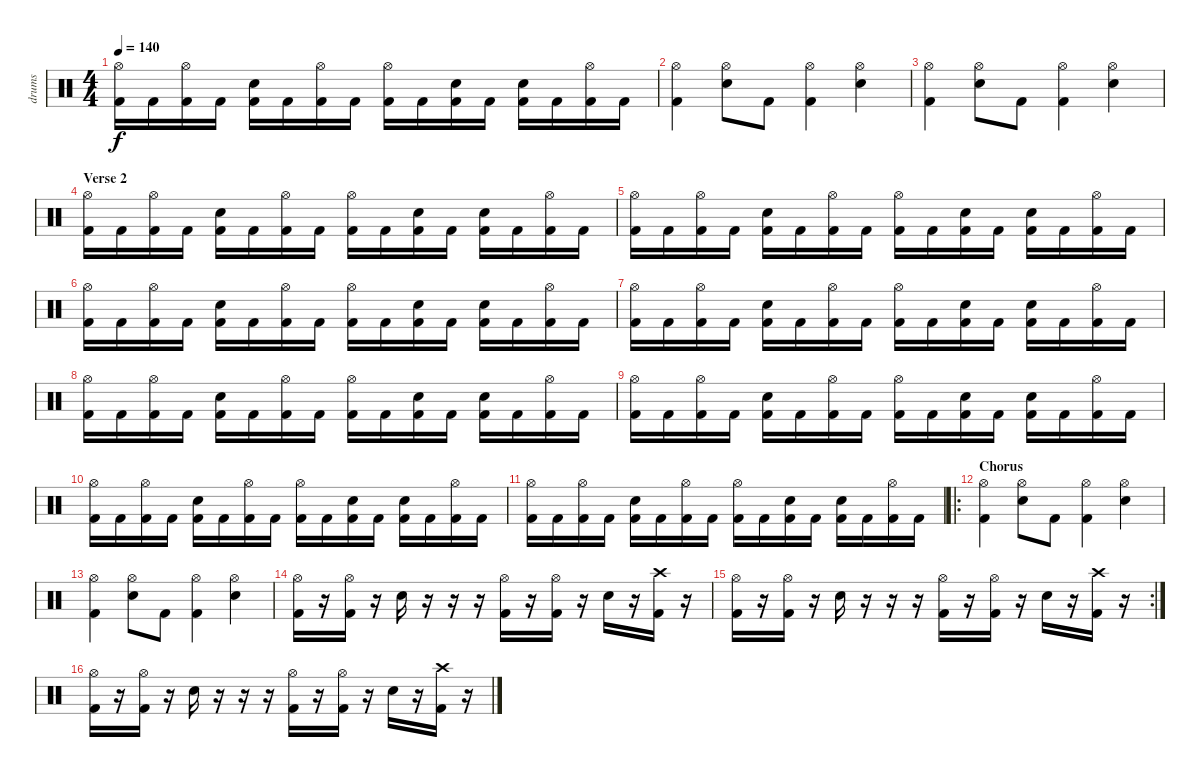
\track ("drums" "drums") {instrument percussion}
\staff {score}
\articulation defaults
\ts (4 4)
\tempo 140
\clef neutral
\ks c
("Hi-Hat (open)" "Kick (hit) 2").16{dy f} "Kick (hit) 2".16 ("Hi-Hat (open)" "Kick (hit) 2").16 "Kick (hit) 2".16 ("Electric Snare (hit)" "Kick (hit) 2").16 "Kick (hit) 2".16 ("Hi-Hat (open)" "Kick (hit) 2").16 "Kick (hit) 2".16 ("Hi-Hat (open)" "Kick (hit) 2").16 "Kick (hit) 2".16 ("Electric Snare (hit)" "Kick (hit) 2").16 "Kick (hit) 2".16 ("Electric Snare (hit)" "Kick (hit) 2").16 "Kick (hit) 2".16 ("Hi-Hat (open)" "Kick (hit) 2").16 "Kick (hit) 2".16 |
("Hi-Hat (open)" "Kick (hit) 2").4 ("Hi-Hat (open)" "Electric Snare (hit)").8 "Kick (hit) 2".8 ("Hi-Hat (open)" "Kick (hit) 2").4 ("Hi-Hat (open)" "Electric Snare (hit)").4 |
("Hi-Hat (open)" "Kick (hit) 2").4 ("Hi-Hat (open)" "Electric Snare (hit)").8 "Kick (hit) 2".8 ("Hi-Hat (open)" "Kick (hit) 2").4 ("Hi-Hat (open)" "Electric Snare (hit)").4 |
\section ("" "Verse 2")
("Hi-Hat (open)" "Kick (hit) 2").16 "Kick (hit) 2".16 ("Hi-Hat (open)" "Kick (hit) 2").16 "Kick (hit) 2".16 ("Electric Snare (hit)" "Kick (hit) 2").16 "Kick (hit) 2".16 ("Hi-Hat (open)" "Kick (hit) 2").16 "Kick (hit) 2".16 ("Hi-Hat (open)" "Kick (hit) 2").16 "Kick (hit) 2".16 ("Electric Snare (hit)" "Kick (hit) 2").16 "Kick (hit) 2".16 ("Electric Snare (hit)" "Kick (hit) 2").16 "Kick (hit) 2".16 ("Hi-Hat (open)" "Kick (hit) 2").16 "Kick (hit) 2".16 |
("Hi-Hat (open)" "Kick (hit) 2").16 "Kick (hit) 2".16 ("Hi-Hat (open)" "Kick (hit) 2").16 "Kick (hit) 2".16 ("Electric Snare (hit)" "Kick (hit) 2").16 "Kick (hit) 2".16 ("Hi-Hat (open)" "Kick (hit) 2").16 "Kick (hit) 2".16 ("Hi-Hat (open)" "Kick (hit) 2").16 "Kick (hit) 2".16 ("Electric Snare (hit)" "Kick (hit) 2").16 "Kick (hit) 2".16 ("Electric Snare (hit)" "Kick (hit) 2").16 "Kick (hit) 2".16 ("Hi-Hat (open)" "Kick (hit) 2").16 "Kick (hit) 2".16 |
("Hi-Hat (open)" "Kick (hit) 2").16 "Kick (hit) 2".16 ("Hi-Hat (open)" "Kick (hit) 2").16 "Kick (hit) 2".16 ("Electric Snare (hit)" "Kick (hit) 2").16 "Kick (hit) 2".16 ("Hi-Hat (open)" "Kick (hit) 2").16 "Kick (hit) 2".16 ("Hi-Hat (open)" "Kick (hit) 2").16 "Kick (hit) 2".16 ("Electric Snare (hit)" "Kick (hit) 2").16 "Kick (hit) 2".16 ("Electric Snare (hit)" "Kick (hit) 2").16 "Kick (hit) 2".16 ("Hi-Hat (open)" "Kick (hit) 2").16 "Kick (hit) 2".16 |
("Hi-Hat (open)" "Kick (hit) 2").16 "Kick (hit) 2".16 ("Hi-Hat (open)" "Kick (hit) 2").16 "Kick (hit) 2".16 ("Electric Snare (hit)" "Kick (hit) 2").16 "Kick (hit) 2".16 ("Hi-Hat (open)" "Kick (hit) 2").16 "Kick (hit) 2".16 ("Hi-Hat (open)" "Kick (hit) 2").16 "Kick (hit) 2".16 ("Electric Snare (hit)" "Kick (hit) 2").16 "Kick (hit) 2".16 ("Electric Snare (hit)" "Kick (hit) 2").16 "Kick (hit) 2".16 ("Hi-Hat (open)" "Kick (hit) 2").16 "Kick (hit) 2".16 |
("Hi-Hat (open)" "Kick (hit) 2").16 "Kick (hit) 2".16 ("Hi-Hat (open)" "Kick (hit) 2").16 "Kick (hit) 2".16 ("Electric Snare (hit)" "Kick (hit) 2").16 "Kick (hit) 2".16 ("Hi-Hat (open)" "Kick (hit) 2").16 "Kick (hit) 2".16 ("Hi-Hat (open)" "Kick (hit) 2").16 "Kick (hit) 2".16 ("Electric Snare (hit)" "Kick (hit) 2").16 "Kick (hit) 2".16 ("Electric Snare (hit)" "Kick (hit) 2").16 "Kick (hit) 2".16 ("Hi-Hat (open)" "Kick (hit) 2").16 "Kick (hit) 2".16 |
("Hi-Hat (open)" "Kick (hit) 2").16 "Kick (hit) 2".16 ("Hi-Hat (open)" "Kick (hit) 2").16 "Kick (hit) 2".16 ("Electric Snare (hit)" "Kick (hit) 2").16 "Kick (hit) 2".16 ("Hi-Hat (open)" "Kick (hit) 2").16 "Kick (hit) 2".16 ("Hi-Hat (open)" "Kick (hit) 2").16 "Kick (hit) 2".16 ("Electric Snare (hit)" "Kick (hit) 2").16 "Kick (hit) 2".16 ("Electric Snare (hit)" "Kick (hit) 2").16 "Kick (hit) 2".16 ("Hi-Hat (open)" "Kick (hit) 2").16 "Kick (hit) 2".16 |
("Hi-Hat (open)" "Kick (hit) 2").16 "Kick (hit) 2".16 ("Hi-Hat (open)" "Kick (hit) 2").16 "Kick (hit) 2".16 ("Electric Snare (hit)" "Kick (hit) 2").16 "Kick (hit) 2".16 ("Hi-Hat (open)" "Kick (hit) 2").16 "Kick (hit) 2".16 ("Hi-Hat (open)" "Kick (hit) 2").16 "Kick (hit) 2".16 ("Electric Snare (hit)" "Kick (hit) 2").16 "Kick (hit) 2".16 ("Electric Snare (hit)" "Kick (hit) 2").16 "Kick (hit) 2".16 ("Hi-Hat (open)" "Kick (hit) 2").16 "Kick (hit) 2".16 |
("Hi-Hat (open)" "Kick (hit) 2").16 "Kick (hit) 2".16 ("Hi-Hat (open)" "Kick (hit) 2").16 "Kick (hit) 2".16 ("Electric Snare (hit)" "Kick (hit) 2").16 "Kick (hit) 2".16 ("Hi-Hat (open)" "Kick (hit) 2").16 "Kick (hit) 2".16 ("Hi-Hat (open)" "Kick (hit) 2").16 "Kick (hit) 2".16 ("Electric Snare (hit)" "Kick (hit) 2").16 "Kick (hit) 2".16 ("Electric Snare (hit)" "Kick (hit) 2").16 "Kick (hit) 2".16 ("Hi-Hat (open)" "Kick (hit) 2").16 "Kick (hit) 2".16 |
\ro
\section ("" "Chorus")
("Hi-Hat (open)" "Kick (hit) 2").4 ("Hi-Hat (open)" "Electric Snare (hit)").8 "Kick (hit) 2".8 ("Hi-Hat (open)" "Kick (hit) 2").4 ("Hi-Hat (open)" "Electric Snare (hit)").4 |
("Hi-Hat (open)" "Kick (hit) 2").4 ("Hi-Hat (open)" "Electric Snare (hit)").8 "Kick (hit) 2".8 ("Hi-Hat (open)" "Kick (hit) 2").4 ("Hi-Hat (open)" "Electric Snare (hit)").4 |
("Hi-Hat (open)" "Kick (hit) 2").16 r.16 ("Hi-Hat (open)" "Kick (hit) 2").16 r.16 "Electric Snare (hit)".16 r.16 r.16 r.16 ("Hi-Hat (open)" "Kick (hit) 2").16 r.16 ("Hi-Hat (open)" "Kick (hit) 2").16 r.16 "Electric Snare (hit)".16 r.16 ("Crash high (hit)" "Kick (hit) 2").16 r.16 |
\rc 2
("Hi-Hat (open)" "Kick (hit) 2").16 r.16 ("Hi-Hat (open)" "Kick (hit) 2").16 r.16 "Electric Snare (hit)".16 r.16 r.16 r.16 ("Hi-Hat (open)" "Kick (hit) 2").16 r.16 ("Hi-Hat (open)" "Kick (hit) 2").16 r.16 "Electric Snare (hit)".16 r.16 ("Crash high (hit)" "Kick (hit) 2").16 r.16 |
("Hi-Hat (open)" "Kick (hit) 2").16 r.16 ("Hi-Hat (open)" "Kick (hit) 2").16 r.16 "Electric Snare (hit)".16 r.16 r.16 r.16 ("Hi-Hat (open)" "Kick (hit) 2").16 r.16 ("Hi-Hat (open)" "Kick (hit) 2").16 r.16 "Electric Snare (hit)".16 r.16 ("Crash high (hit)" "Kick (hit) 2").16 r.16
